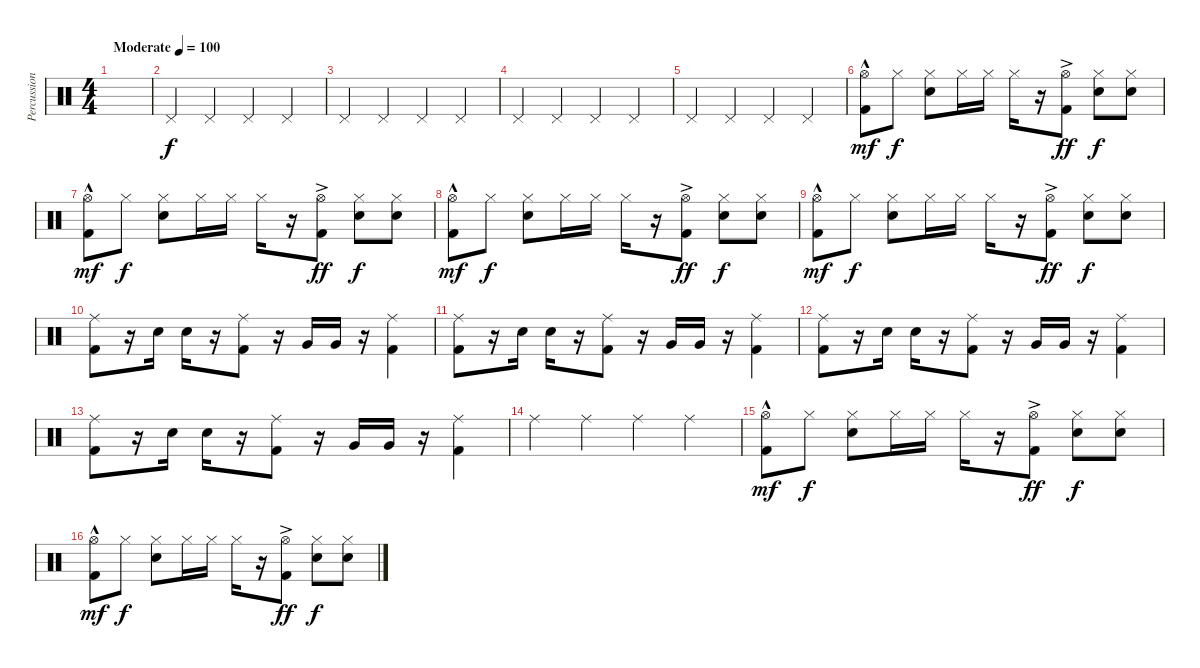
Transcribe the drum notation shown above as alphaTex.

\track ("Percussion" "Percussion") {instrument percussion}
\staff {score}
\articulation defaults
\ts (4 4)
\tempo (100 "Moderate")
\clef neutral
\ks c
|
"Pedal Hi-Hat (hit)".4 "Pedal Hi-Hat (hit)".4 "Pedal Hi-Hat (hit)".4 "Pedal Hi-Hat (hit)".4 |
"Pedal Hi-Hat (hit)".4 "Pedal Hi-Hat (hit)".4 "Pedal Hi-Hat (hit)".4 "Pedal Hi-Hat (hit)".4 |
"Pedal Hi-Hat (hit)".4 "Pedal Hi-Hat (hit)".4 "Pedal Hi-Hat (hit)".4 "Pedal Hi-Hat (hit)".4 |
"Pedal Hi-Hat (hit)".4 "Pedal Hi-Hat (hit)".4 "Pedal Hi-Hat (hit)".4 "Pedal Hi-Hat (hit)".4 |
("Hi-Hat (open)"{hac} "Kick (hit) 2"{hac}).8{dy mf} "Hi-Hat (closed)".8{dy f} ("Hi-Hat (closed)" "Snare (hit) 2").8 "Hi-Hat (closed)".16 "Hi-Hat (closed)".16 "Hi-Hat (closed)".16 r.16 ("Hi-Hat (open)"{ac} "Kick (hit) 2"{ac}).8{dy ff} ("Hi-Hat (closed)" "Snare (hit) 2").8{dy f} ("Hi-Hat (closed)" "Snare (hit) 2").8 |
("Hi-Hat (open)"{hac} "Kick (hit) 2"{hac}).8{dy mf} "Hi-Hat (closed)".8{dy f} ("Hi-Hat (closed)" "Snare (hit) 2").8 "Hi-Hat (closed)".16 "Hi-Hat (closed)".16 "Hi-Hat (closed)".16 r.16 ("Hi-Hat (open)"{ac} "Kick (hit) 2"{ac}).8{dy ff} ("Hi-Hat (closed)" "Snare (hit) 2").8{dy f} ("Hi-Hat (closed)" "Snare (hit) 2").8 |
("Hi-Hat (open)"{hac} "Kick (hit) 2"{hac}).8{dy mf} "Hi-Hat (closed)".8{dy f} ("Hi-Hat (closed)" "Snare (hit) 2").8 "Hi-Hat (closed)".16 "Hi-Hat (closed)".16 "Hi-Hat (closed)".16 r.16 ("Hi-Hat (open)"{ac} "Kick (hit) 2"{ac}).8{dy ff} ("Hi-Hat (closed)" "Snare (hit) 2").8{dy f} ("Hi-Hat (closed)" "Snare (hit) 2").8 |
("Hi-Hat (open)"{hac} "Kick (hit) 2"{hac}).8{dy mf} "Hi-Hat (closed)".8{dy f} ("Hi-Hat (closed)" "Snare (hit) 2").8 "Hi-Hat (closed)".16 "Hi-Hat (closed)".16 "Hi-Hat (closed)".16 r.16 ("Hi-Hat (open)"{ac} "Kick (hit) 2"{ac}).8{dy ff} ("Hi-Hat (closed)" "Snare (hit) 2").8{dy f} ("Hi-Hat (closed)" "Snare (hit) 2").8 |
("Ride (middle)" "Kick (hit) 2").8 r.16 "Snare (hit) 2".16 "Snare (hit) 2".16 r.16 ("Ride (middle)" "Kick (hit) 2").8 r.16 "Very Low Tom (hit)".16 "Very Low Tom (hit)".16 r.16 ("Ride (middle)" "Kick (hit) 2").4 |
("Ride (middle)" "Kick (hit) 2").8 r.16 "Snare (hit) 2".16 "Snare (hit) 2".16 r.16 ("Ride (middle)" "Kick (hit) 2").8 r.16 "Very Low Tom (hit)".16 "Very Low Tom (hit)".16 r.16 ("Ride (middle)" "Kick (hit) 2").4 |
("Ride (middle)" "Kick (hit) 2").8 r.16 "Snare (hit) 2".16 "Snare (hit) 2".16 r.16 ("Ride (middle)" "Kick (hit) 2").8 r.16 "Very Low Tom (hit)".16 "Very Low Tom (hit)".16 r.16 ("Ride (middle)" "Kick (hit) 2").4 |
("Ride (middle)" "Kick (hit) 2").8 r.16 "Snare (hit) 2".16 "Snare (hit) 2".16 r.16 ("Ride (middle)" "Kick (hit) 2").8 r.16 "Very Low Tom (hit)".16 "Very Low Tom (hit)".16 r.16 ("Ride (middle)" "Kick (hit) 2").4 |
"Ride (middle)".4 "Ride (middle)".4 "Ride (middle)".4 "Ride (middle)".4 |
("Hi-Hat (open)"{hac} "Kick (hit) 2"{hac}).8{dy mf} "Hi-Hat (closed)".8{dy f} ("Hi-Hat (closed)" "Snare (hit) 2").8 "Hi-Hat (closed)".16 "Hi-Hat (closed)".16 "Hi-Hat (closed)".16 r.16 ("Hi-Hat (open)"{ac} "Kick (hit) 2"{ac}).8{dy ff} ("Hi-Hat (closed)" "Snare (hit) 2").8{dy f} ("Hi-Hat (closed)" "Snare (hit) 2").8 |
("Hi-Hat (open)"{hac} "Kick (hit) 2"{hac}).8{dy mf} "Hi-Hat (closed)".8{dy f} ("Hi-Hat (closed)" "Snare (hit) 2").8 "Hi-Hat (closed)".16 "Hi-Hat (closed)".16 "Hi-Hat (closed)".16 r.16 ("Hi-Hat (open)"{ac} "Kick (hit) 2"{ac}).8{dy ff} ("Hi-Hat (closed)" "Snare (hit) 2").8{dy f} ("Hi-Hat (closed)" "Snare (hit) 2").8
